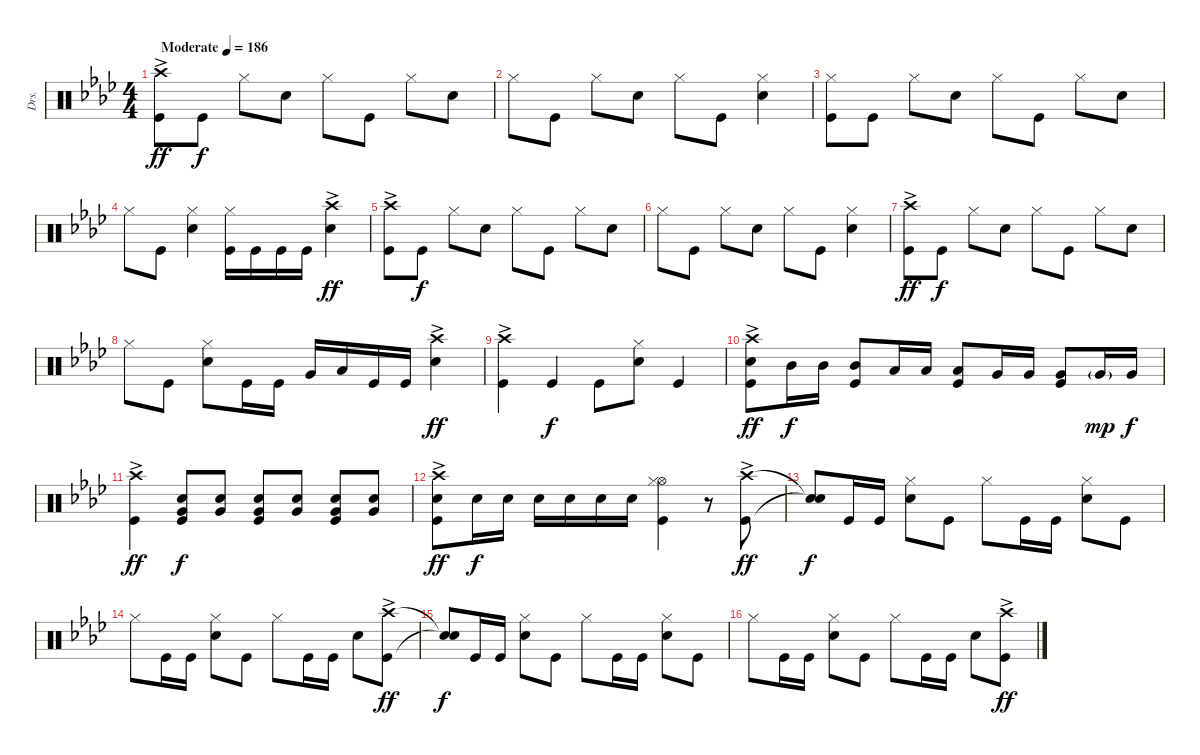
\track ("Drs." "Drs.") {instrument percussion}
\staff {score}
\articulation defaults
\ts (4 4)
\tempo (186 "Moderate")
\clef neutral
\ks ab
("Crash high (hit)"{ac} "Kick (hit)").8{dy ff} "Kick (hit)".8{dy f} "Hi-Hat (closed)".8 "Snare (hit) 2".8 "Hi-Hat (closed)".8 "Kick (hit)".8 "Hi-Hat (closed)".8 "Snare (hit) 2".8 |
"Hi-Hat (closed)".8 "Kick (hit)".8 "Hi-Hat (closed)".8 "Snare (hit) 2".8 "Hi-Hat (closed)".8 "Kick (hit)".8 ("Hi-Hat (closed)" "Snare (hit) 2").4 |
("Hi-Hat (closed)" "Kick (hit)").8 "Kick (hit)".8 "Hi-Hat (closed)".8 "Snare (hit) 2".8 "Hi-Hat (closed)".8 "Kick (hit)".8 "Hi-Hat (closed)".8 "Snare (hit) 2".8 |
"Hi-Hat (closed)".8 "Kick (hit)".8 ("Hi-Hat (closed)" "Snare (hit) 2").4 ("Hi-Hat (closed)" "Kick (hit)").16 "Kick (hit)".16 "Kick (hit)".16 "Kick (hit)".16 ("Crash high (hit)"{ac} "Snare (hit) 2").4{dy ff} |
("Crash high (hit)"{ac} "Kick (hit)").8 "Kick (hit)".8{dy f} "Hi-Hat (closed)".8 "Snare (hit) 2".8 "Hi-Hat (closed)".8 "Kick (hit)".8 "Hi-Hat (closed)".8 "Snare (hit) 2".8 |
"Hi-Hat (closed)".8 "Kick (hit)".8 "Hi-Hat (closed)".8 "Snare (hit) 2".8 "Hi-Hat (closed)".8 "Kick (hit)".8 ("Hi-Hat (closed)" "Snare (hit) 2").4 |
("Crash high (hit)"{ac} "Kick (hit)").8{dy ff} "Kick (hit)".8{dy f} "Hi-Hat (closed)".8 "Snare (hit) 2".8 "Hi-Hat (closed)".8 "Kick (hit)".8 "Hi-Hat (closed)".8 "Snare (hit) 2".8 |
"Hi-Hat (closed)".8 "Kick (hit)".8 ("Hi-Hat (closed)" "Snare (hit) 2").8 "Kick (hit)".16 "Kick (hit)".16 "Very Low Tom (hit)".16 "Low Tom (hit)".16 "Kick (hit)".16 "Kick (hit)".16 ("Crash high (hit)"{ac} "Snare (hit) 2").4{dy ff} |
("Crash high (hit)"{ac} "Kick (hit)").4 "Kick (hit)".4{dy f} "Kick (hit)".8 ("Hi-Hat (closed)" "Snare (hit) 2").8 "Kick (hit)".4 |
("Crash high (hit)"{ac} "Snare (hit) 2" "Kick (hit)").8{dy ff} "Mid Tom (hit)".16{dy f} "Mid Tom (hit)".16 ("Mid Tom (hit)" "Kick (hit)").8 "Low Tom (hit)".16 "Low Tom (hit)".16 ("Low Tom (hit)" "Kick (hit)").8 "Very Low Tom (hit)".16 "Very Low Tom (hit)".16 ("Very Low Tom (hit)" "Kick (hit)").8 "Very Low Tom (hit)"{g}.16{dy mp} "Very Low Tom (hit)".16{dy f} |
("Crash high (hit)"{ac} "Kick (hit)").4{dy ff} ("Snare (hit) 2" "Very Low Tom (hit)" "Kick (hit)").8{dy f} ("Snare (hit) 2" "Very Low Tom (hit)").8 ("Snare (hit) 2" "Very Low Tom (hit)" "Kick (hit)").8 ("Snare (hit) 2" "Very Low Tom (hit)").8 ("Snare (hit) 2" "Very Low Tom (hit)" "Kick (hit)").8 ("Snare (hit) 2" "Very Low Tom (hit)").8 |
("Crash high (hit)"{ac} "Snare (hit) 2" "Kick (hit)").8{dy ff} "Snare (hit) 2".16{dy f} "Snare (hit) 2".16 "Snare (hit) 2".16 "Snare (hit) 2".16 "Snare (hit) 2".16 "Snare (hit) 2".16 ("Hi-Hat (open)" "Hi-Hat (closed)" "Kick (hit)").4 r.8 ("Crash high (hit)"{ac} "Kick (hit)").8{dy ff} |
("Snare (hit)"{t} "Snare (hit)"{t}).8{dy f} "Kick (hit)".16 "Kick (hit)".16 ("Hi-Hat (closed)" "Snare (hit) 2").8 "Kick (hit)".8 "Hi-Hat (closed)".8 "Kick (hit)".16 "Kick (hit)".16 ("Hi-Hat (closed)" "Snare (hit) 2").8 "Kick (hit)".8 |
"Hi-Hat (closed)".8 "Kick (hit)".16 "Kick (hit)".16 ("Hi-Hat (closed)" "Snare (hit) 2").8 "Kick (hit)".8 "Hi-Hat (closed)".8 "Kick (hit)".16 "Kick (hit)".16 "Snare (hit) 2".8 ("Crash high (hit)"{ac} "Kick (hit)").8{dy ff} |
("Snare (hit)"{t} "Snare (hit)"{t}).8{dy f} "Kick (hit)".16 "Kick (hit)".16 ("Hi-Hat (closed)" "Snare (hit) 2").8 "Kick (hit)".8 "Hi-Hat (closed)".8 "Kick (hit)".16 "Kick (hit)".16 ("Hi-Hat (closed)" "Snare (hit) 2").8 "Kick (hit)".8 |
"Hi-Hat (closed)".8 "Kick (hit)".16 "Kick (hit)".16 ("Hi-Hat (closed)" "Snare (hit) 2").8 "Kick (hit)".8 "Hi-Hat (closed)".8 "Kick (hit)".16 "Kick (hit)".16 "Snare (hit) 2".8 ("Crash high (hit)"{ac} "Kick (hit)").8{dy ff}
